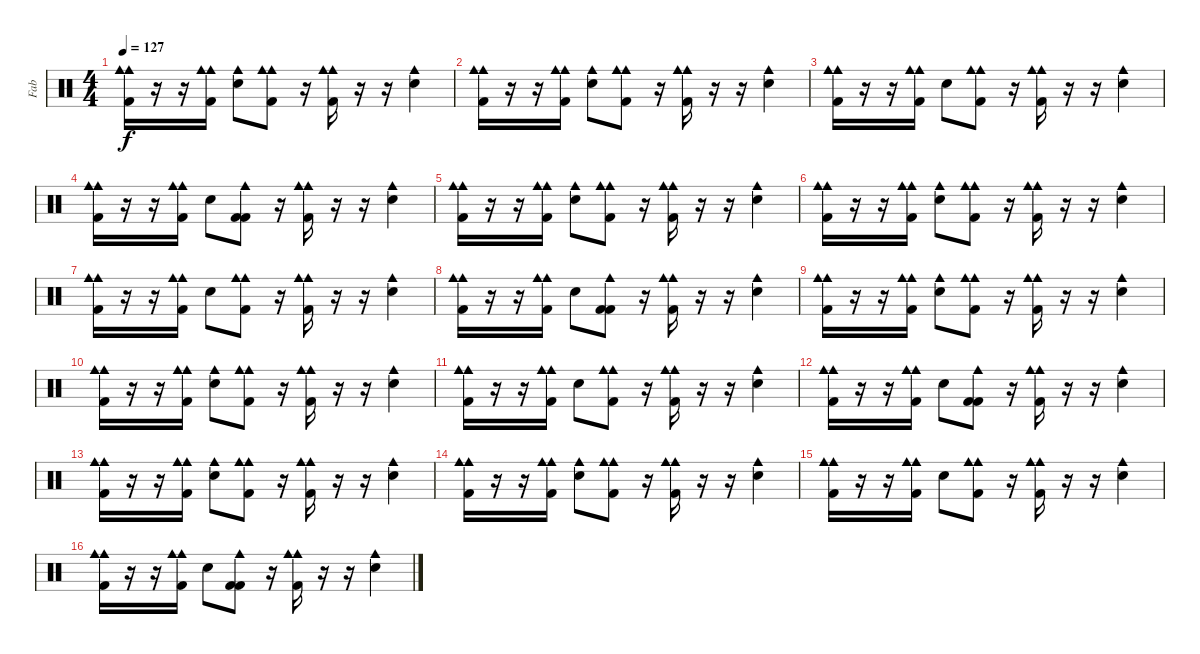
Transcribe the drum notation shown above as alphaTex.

\track ("Fab" "Fab") {instrument percussion}
\staff {score}
\articulation defaults
\ts (4 4)
\tempo 127
\clef neutral
\ks c
("Cowbell medium (hit)" "Kick (hit) 2" "Cowbell medium (hit)").16{dy f} r.16 r.16 ("Cowbell medium (hit)" "Kick (hit) 2" "Cowbell medium (hit)").16 ("Electric Snare (hit)" "Cowbell medium (hit)").8 ("Cowbell medium (hit)" "Kick (hit) 2" "Cowbell medium (hit)").8 r.16 ("Cowbell medium (hit)" "Kick (hit) 2" "Cowbell medium (hit)").16 r.16 r.16 ("Electric Snare (hit)" "Cowbell medium (hit)").4 |
("Cowbell medium (hit)" "Kick (hit) 2" "Cowbell medium (hit)").16 r.16 r.16 ("Cowbell medium (hit)" "Kick (hit) 2" "Cowbell medium (hit)").16 ("Electric Snare (hit)" "Cowbell medium (hit)").8 ("Cowbell medium (hit)" "Kick (hit) 2" "Cowbell medium (hit)").8 r.16 ("Cowbell medium (hit)" "Kick (hit) 2" "Cowbell medium (hit)").16 r.16 r.16 ("Electric Snare (hit)" "Cowbell medium (hit)").4 |
("Cowbell medium (hit)" "Kick (hit) 2" "Cowbell medium (hit)").16 r.16 r.16 ("Cowbell medium (hit)" "Kick (hit) 2" "Cowbell medium (hit)").16 "Electric Snare (hit)".8 ("Cowbell medium (hit)" "Kick (hit) 2" "Cowbell medium (hit)").8 r.16 ("Cowbell medium (hit)" "Kick (hit) 2" "Cowbell medium (hit)").16 r.16 r.16 ("Electric Snare (hit)" "Cowbell medium (hit)").4 |
("Cowbell medium (hit)" "Kick (hit) 2" "Cowbell medium (hit)").16 r.16 r.16 ("Cowbell medium (hit)" "Kick (hit) 2" "Cowbell medium (hit)").16 "Electric Snare (hit)".8 ("Kick (hit) 2" "Kick (hit) 2" "Cowbell medium (hit)").8 r.16 ("Cowbell medium (hit)" "Kick (hit) 2" "Cowbell medium (hit)").16 r.16 r.16 ("Electric Snare (hit)" "Cowbell medium (hit)").4 |
("Cowbell medium (hit)" "Kick (hit) 2" "Cowbell medium (hit)").16 r.16 r.16 ("Cowbell medium (hit)" "Kick (hit) 2" "Cowbell medium (hit)").16 ("Electric Snare (hit)" "Cowbell medium (hit)").8 ("Cowbell medium (hit)" "Kick (hit) 2" "Cowbell medium (hit)").8 r.16 ("Cowbell medium (hit)" "Kick (hit) 2" "Cowbell medium (hit)").16 r.16 r.16 ("Electric Snare (hit)" "Cowbell medium (hit)").4 |
("Cowbell medium (hit)" "Kick (hit) 2" "Cowbell medium (hit)").16 r.16 r.16 ("Cowbell medium (hit)" "Kick (hit) 2" "Cowbell medium (hit)").16 ("Electric Snare (hit)" "Cowbell medium (hit)").8 ("Cowbell medium (hit)" "Kick (hit) 2" "Cowbell medium (hit)").8 r.16 ("Cowbell medium (hit)" "Kick (hit) 2" "Cowbell medium (hit)").16 r.16 r.16 ("Electric Snare (hit)" "Cowbell medium (hit)").4 |
("Cowbell medium (hit)" "Kick (hit) 2" "Cowbell medium (hit)").16 r.16 r.16 ("Cowbell medium (hit)" "Kick (hit) 2" "Cowbell medium (hit)").16 "Electric Snare (hit)".8 ("Cowbell medium (hit)" "Kick (hit) 2" "Cowbell medium (hit)").8 r.16 ("Cowbell medium (hit)" "Kick (hit) 2" "Cowbell medium (hit)").16 r.16 r.16 ("Electric Snare (hit)" "Cowbell medium (hit)").4 |
("Cowbell medium (hit)" "Kick (hit) 2" "Cowbell medium (hit)").16 r.16 r.16 ("Cowbell medium (hit)" "Kick (hit) 2" "Cowbell medium (hit)").16 "Electric Snare (hit)".8 ("Kick (hit) 2" "Kick (hit) 2" "Cowbell medium (hit)").8 r.16 ("Cowbell medium (hit)" "Kick (hit) 2" "Cowbell medium (hit)").16 r.16 r.16 ("Electric Snare (hit)" "Cowbell medium (hit)").4 |
("Cowbell medium (hit)" "Kick (hit) 2" "Cowbell medium (hit)").16 r.16 r.16 ("Cowbell medium (hit)" "Kick (hit) 2" "Cowbell medium (hit)").16 ("Electric Snare (hit)" "Cowbell medium (hit)").8 ("Cowbell medium (hit)" "Kick (hit) 2" "Cowbell medium (hit)").8 r.16 ("Cowbell medium (hit)" "Kick (hit) 2" "Cowbell medium (hit)").16 r.16 r.16 ("Electric Snare (hit)" "Cowbell medium (hit)").4 |
("Cowbell medium (hit)" "Kick (hit) 2" "Cowbell medium (hit)").16 r.16 r.16 ("Cowbell medium (hit)" "Kick (hit) 2" "Cowbell medium (hit)").16 ("Electric Snare (hit)" "Cowbell medium (hit)").8 ("Cowbell medium (hit)" "Kick (hit) 2" "Cowbell medium (hit)").8 r.16 ("Cowbell medium (hit)" "Kick (hit) 2" "Cowbell medium (hit)").16 r.16 r.16 ("Electric Snare (hit)" "Cowbell medium (hit)").4 |
("Cowbell medium (hit)" "Kick (hit) 2" "Cowbell medium (hit)").16 r.16 r.16 ("Cowbell medium (hit)" "Kick (hit) 2" "Cowbell medium (hit)").16 "Electric Snare (hit)".8 ("Cowbell medium (hit)" "Kick (hit) 2" "Cowbell medium (hit)").8 r.16 ("Cowbell medium (hit)" "Kick (hit) 2" "Cowbell medium (hit)").16 r.16 r.16 ("Electric Snare (hit)" "Cowbell medium (hit)").4 |
("Cowbell medium (hit)" "Kick (hit) 2" "Cowbell medium (hit)").16 r.16 r.16 ("Cowbell medium (hit)" "Kick (hit) 2" "Cowbell medium (hit)").16 "Electric Snare (hit)".8 ("Kick (hit) 2" "Kick (hit) 2" "Cowbell medium (hit)").8 r.16 ("Cowbell medium (hit)" "Kick (hit) 2" "Cowbell medium (hit)").16 r.16 r.16 ("Electric Snare (hit)" "Cowbell medium (hit)").4 |
("Cowbell medium (hit)" "Kick (hit) 2" "Cowbell medium (hit)").16 r.16 r.16 ("Cowbell medium (hit)" "Kick (hit) 2" "Cowbell medium (hit)").16 ("Electric Snare (hit)" "Cowbell medium (hit)").8 ("Cowbell medium (hit)" "Kick (hit) 2" "Cowbell medium (hit)").8 r.16 ("Cowbell medium (hit)" "Kick (hit) 2" "Cowbell medium (hit)").16 r.16 r.16 ("Electric Snare (hit)" "Cowbell medium (hit)").4 |
("Cowbell medium (hit)" "Kick (hit) 2" "Cowbell medium (hit)").16 r.16 r.16 ("Cowbell medium (hit)" "Kick (hit) 2" "Cowbell medium (hit)").16 ("Electric Snare (hit)" "Cowbell medium (hit)").8 ("Cowbell medium (hit)" "Kick (hit) 2" "Cowbell medium (hit)").8 r.16 ("Cowbell medium (hit)" "Kick (hit) 2" "Cowbell medium (hit)").16 r.16 r.16 ("Electric Snare (hit)" "Cowbell medium (hit)").4 |
("Cowbell medium (hit)" "Kick (hit) 2" "Cowbell medium (hit)").16 r.16 r.16 ("Cowbell medium (hit)" "Kick (hit) 2" "Cowbell medium (hit)").16 "Electric Snare (hit)".8 ("Cowbell medium (hit)" "Kick (hit) 2" "Cowbell medium (hit)").8 r.16 ("Cowbell medium (hit)" "Kick (hit) 2" "Cowbell medium (hit)").16 r.16 r.16 ("Electric Snare (hit)" "Cowbell medium (hit)").4 |
("Cowbell medium (hit)" "Kick (hit) 2" "Cowbell medium (hit)").16 r.16 r.16 ("Cowbell medium (hit)" "Kick (hit) 2" "Cowbell medium (hit)").16 "Electric Snare (hit)".8 ("Kick (hit) 2" "Kick (hit) 2" "Cowbell medium (hit)").8 r.16 ("Cowbell medium (hit)" "Kick (hit) 2" "Cowbell medium (hit)").16 r.16 r.16 ("Electric Snare (hit)" "Cowbell medium (hit)").4
